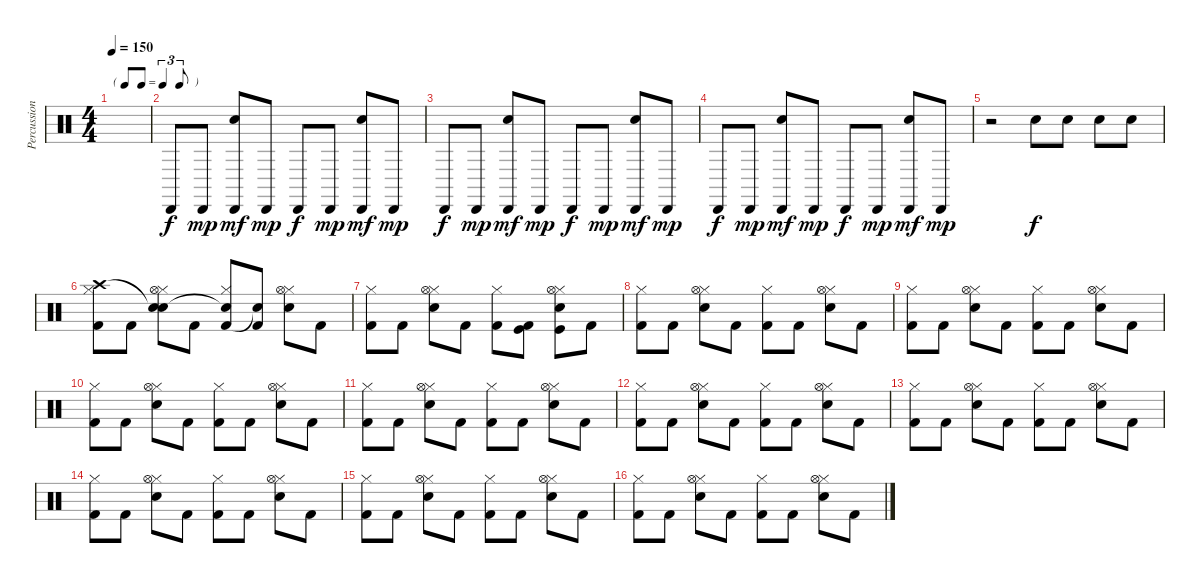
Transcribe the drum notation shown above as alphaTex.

\track ("Percussion" "Percussion") {instrument percussion}
\staff {score}
\articulation defaults
\ts (4 4)
\tf triplet8th
\tempo 150
\clef neutral
\ks c
|
"Cabasa (hit)".8 "Cabasa (hit)".8{dy mp} ("Cabasa (hit)" "Hand Clap (hit)").8{dy mf} "Cabasa (hit)".8{dy mp} "Cabasa (hit)".8{dy f} "Cabasa (hit)".8{dy mp} ("Cabasa (hit)" "Hand Clap (hit)").8{dy mf} "Cabasa (hit)".8{dy mp} |
"Cabasa (hit)".8{dy f} "Cabasa (hit)".8{dy mp} ("Cabasa (hit)" "Hand Clap (hit)").8{dy mf} "Cabasa (hit)".8{dy mp} "Cabasa (hit)".8{dy f} "Cabasa (hit)".8{dy mp} ("Cabasa (hit)" "Hand Clap (hit)").8{dy mf} "Cabasa (hit)".8{dy mp} |
"Cabasa (hit)".8{dy f} "Cabasa (hit)".8{dy mp} ("Cabasa (hit)" "Hand Clap (hit)").8{dy mf} "Cabasa (hit)".8{dy mp} "Cabasa (hit)".8{dy f} "Cabasa (hit)".8{dy mp} ("Cabasa (hit)" "Hand Clap (hit)").8{dy mf} "Cabasa (hit)".8{dy mp} |
r.2 "Snare (hit) 2".8{dy f} "Snare (hit) 2".8 "Snare (hit) 2".8 "Snare (hit) 2".8 |
("Hi-Hat (closed)" "Kick (hit) 2" "Crash high (hit)").8 "Kick (hit) 2".8 ("Hi-Hat (closed)" "Electric Snare (hit)" "Snare (hit)"{t} "Hi-Hat (open)").8 "Kick (hit) 2".8 ("Hi-Hat (closed)" "Kick (hit) 2" "Snare (hit)"{t}).8 ("Kick (hit) 2" "Snare (hit)"{t}).8 ("Hi-Hat (closed)" "Electric Snare (hit)" "Hi-Hat (open)").8 "Kick (hit) 2".8 |
("Hi-Hat (closed)" "Kick (hit) 2").8 "Kick (hit) 2".8 ("Hi-Hat (closed)" "Electric Snare (hit)" "Hi-Hat (open)").8 "Kick (hit) 2".8 ("Hi-Hat (closed)" "Kick (hit) 2").8 ("Kick (hit) 2" "Kick (hit)").8 ("Hi-Hat (closed)" "Electric Snare (hit)" "Hi-Hat (open)" "Kick (hit)").8 "Kick (hit) 2".8 |
("Hi-Hat (closed)" "Kick (hit) 2").8 "Kick (hit) 2".8 ("Hi-Hat (closed)" "Electric Snare (hit)" "Hi-Hat (open)").8 "Kick (hit) 2".8 ("Hi-Hat (closed)" "Kick (hit) 2").8 "Kick (hit) 2".8 ("Hi-Hat (closed)" "Electric Snare (hit)" "Hi-Hat (open)").8 "Kick (hit) 2".8 |
("Hi-Hat (closed)" "Kick (hit) 2").8 "Kick (hit) 2".8 ("Hi-Hat (closed)" "Electric Snare (hit)" "Hi-Hat (open)").8 "Kick (hit) 2".8 ("Hi-Hat (closed)" "Kick (hit) 2").8 "Kick (hit) 2".8 ("Hi-Hat (closed)" "Electric Snare (hit)" "Hi-Hat (open)").8 "Kick (hit) 2".8 |
("Hi-Hat (closed)" "Kick (hit) 2").8 "Kick (hit) 2".8 ("Hi-Hat (closed)" "Electric Snare (hit)" "Hi-Hat (open)").8 "Kick (hit) 2".8 ("Hi-Hat (closed)" "Kick (hit) 2").8 "Kick (hit) 2".8 ("Hi-Hat (closed)" "Electric Snare (hit)" "Hi-Hat (open)").8 "Kick (hit) 2".8 |
("Hi-Hat (closed)" "Kick (hit) 2").8 "Kick (hit) 2".8 ("Hi-Hat (closed)" "Electric Snare (hit)" "Hi-Hat (open)").8 "Kick (hit) 2".8 ("Hi-Hat (closed)" "Kick (hit) 2").8 "Kick (hit) 2".8 ("Hi-Hat (closed)" "Electric Snare (hit)" "Hi-Hat (open)").8 "Kick (hit) 2".8 |
("Hi-Hat (closed)" "Kick (hit) 2").8 "Kick (hit) 2".8 ("Hi-Hat (closed)" "Electric Snare (hit)" "Hi-Hat (open)").8 "Kick (hit) 2".8 ("Hi-Hat (closed)" "Kick (hit) 2").8 "Kick (hit) 2".8 ("Hi-Hat (closed)" "Electric Snare (hit)" "Hi-Hat (open)").8 "Kick (hit) 2".8 |
("Hi-Hat (closed)" "Kick (hit) 2").8 "Kick (hit) 2".8 ("Hi-Hat (closed)" "Electric Snare (hit)" "Hi-Hat (open)").8 "Kick (hit) 2".8 ("Hi-Hat (closed)" "Kick (hit) 2").8 "Kick (hit) 2".8 ("Hi-Hat (closed)" "Electric Snare (hit)" "Hi-Hat (open)").8 "Kick (hit) 2".8 |
("Hi-Hat (closed)" "Kick (hit) 2").8 "Kick (hit) 2".8 ("Hi-Hat (closed)" "Electric Snare (hit)" "Hi-Hat (open)").8 "Kick (hit) 2".8 ("Hi-Hat (closed)" "Kick (hit) 2").8 "Kick (hit) 2".8 ("Hi-Hat (closed)" "Electric Snare (hit)" "Hi-Hat (open)").8 "Kick (hit) 2".8 |
("Hi-Hat (closed)" "Kick (hit) 2").8 "Kick (hit) 2".8 ("Hi-Hat (closed)" "Electric Snare (hit)" "Hi-Hat (open)").8 "Kick (hit) 2".8 ("Hi-Hat (closed)" "Kick (hit) 2").8 "Kick (hit) 2".8 ("Hi-Hat (closed)" "Electric Snare (hit)" "Hi-Hat (open)").8 "Kick (hit) 2".8 |
("Hi-Hat (closed)" "Kick (hit) 2").8 "Kick (hit) 2".8 ("Hi-Hat (closed)" "Electric Snare (hit)" "Hi-Hat (open)").8 "Kick (hit) 2".8 ("Hi-Hat (closed)" "Kick (hit) 2").8 "Kick (hit) 2".8 ("Hi-Hat (closed)" "Electric Snare (hit)" "Hi-Hat (open)").8 "Kick (hit) 2".8
